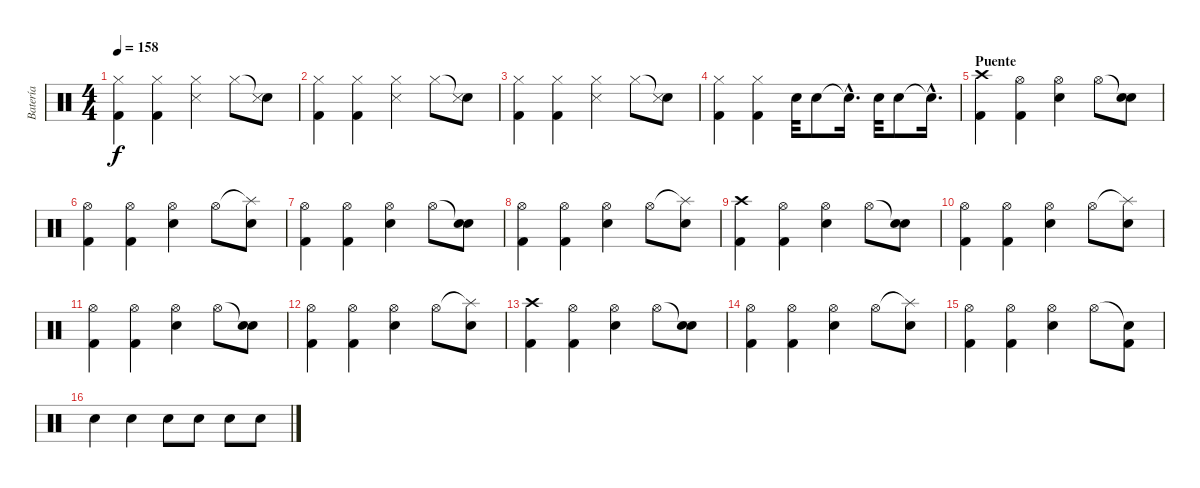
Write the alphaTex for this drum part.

\track ("Batería" "Batería") {instrument percussion}
\staff {score}
\articulation defaults
\ts (4 4)
\tempo 158
\clef neutral
\ks c
("Hi-Hat (closed)" "Kick (hit) 2").4{dy f} ("Hi-Hat (closed)" "Kick (hit) 2").4 ("Hi-Hat (closed)" "Snare (side stick) 3").4 "Hi-Hat (closed)".8 ("Snare (hit)"{t} "Snare (side stick) 3").8 |
("Hi-Hat (closed)" "Kick (hit) 2").4 ("Hi-Hat (closed)" "Kick (hit) 2").4 ("Hi-Hat (closed)" "Snare (side stick) 3").4 "Hi-Hat (closed)".8 ("Snare (hit)"{t} "Snare (side stick) 3").8 |
("Hi-Hat (closed)" "Kick (hit) 2").4 ("Hi-Hat (closed)" "Kick (hit) 2").4 ("Hi-Hat (closed)" "Snare (side stick) 3").4 "Hi-Hat (closed)".8 ("Snare (hit)"{t} "Snare (side stick) 3").8 |
("Hi-Hat (closed)" "Kick (hit) 2").4 ("Hi-Hat (closed)" "Kick (hit) 2").4 "Electric Snare (hit)".32 "Electric Snare (hit)".8 "Snare (hit)"{hac t}.16{d} "Electric Snare (hit)".32 "Electric Snare (hit)".8 "Snare (hit)"{hac t}.16{d} |
\section ("" "Puente")
("Crash high (hit)" "Kick (hit) 2").4 ("Hi-Hat (open)" "Kick (hit) 2").4 ("Hi-Hat (open)" "Electric Snare (hit)").4 "Hi-Hat (open)".8 ("Snare (hit)"{t} "Electric Snare (hit)").8 |
("Hi-Hat (open)" "Kick (hit) 2").4 ("Hi-Hat (open)" "Kick (hit) 2").4 ("Hi-Hat (open)" "Electric Snare (hit)").4 "Hi-Hat (open)".8 ("Splash (hit)"{t} "Electric Snare (hit)").8 |
("Hi-Hat (open)" "Kick (hit) 2").4 ("Hi-Hat (open)" "Kick (hit) 2").4 ("Hi-Hat (open)" "Electric Snare (hit)").4 "Hi-Hat (open)".8 ("Snare (hit)"{t} "Electric Snare (hit)").8 |
("Hi-Hat (open)" "Kick (hit) 2").4 ("Hi-Hat (open)" "Kick (hit) 2").4 ("Hi-Hat (open)" "Electric Snare (hit)").4 "Hi-Hat (open)".8 ("Splash (hit)"{t} "Electric Snare (hit)").8 |
("Crash high (hit)" "Kick (hit) 2").4 ("Hi-Hat (open)" "Kick (hit) 2").4 ("Hi-Hat (open)" "Electric Snare (hit)").4 "Hi-Hat (open)".8 ("Snare (hit)"{t} "Electric Snare (hit)").8 |
("Hi-Hat (open)" "Kick (hit) 2").4 ("Hi-Hat (open)" "Kick (hit) 2").4 ("Hi-Hat (open)" "Electric Snare (hit)").4 "Hi-Hat (open)".8 ("Splash (hit)"{t} "Electric Snare (hit)").8 |
("Hi-Hat (open)" "Kick (hit) 2").4 ("Hi-Hat (open)" "Kick (hit) 2").4 ("Hi-Hat (open)" "Electric Snare (hit)").4 "Hi-Hat (open)".8 ("Snare (hit)"{t} "Electric Snare (hit)").8 |
("Hi-Hat (open)" "Kick (hit) 2").4 ("Hi-Hat (open)" "Kick (hit) 2").4 ("Hi-Hat (open)" "Electric Snare (hit)").4 "Hi-Hat (open)".8 ("Splash (hit)"{t} "Electric Snare (hit)").8 |
("Crash high (hit)" "Kick (hit) 2").4 ("Hi-Hat (open)" "Kick (hit) 2").4 ("Hi-Hat (open)" "Electric Snare (hit)").4 "Hi-Hat (open)".8 ("Snare (hit)"{t} "Electric Snare (hit)").8 |
("Hi-Hat (open)" "Kick (hit) 2").4 ("Hi-Hat (open)" "Kick (hit) 2").4 ("Hi-Hat (open)" "Electric Snare (hit)").4 "Hi-Hat (open)".8 ("Splash (hit)"{t} "Electric Snare (hit)").8 |
("Hi-Hat (open)" "Kick (hit) 2").4 ("Hi-Hat (open)" "Kick (hit) 2").4 ("Hi-Hat (open)" "Electric Snare (hit)").4 "Hi-Hat (open)".8 ("Snare (hit)"{t} "Kick (hit) 2").8 |
"Electric Snare (hit)".4 "Electric Snare (hit)".4 "Electric Snare (hit)".8 "Electric Snare (hit)".8 "Electric Snare (hit)".8 "Electric Snare (hit)".8
